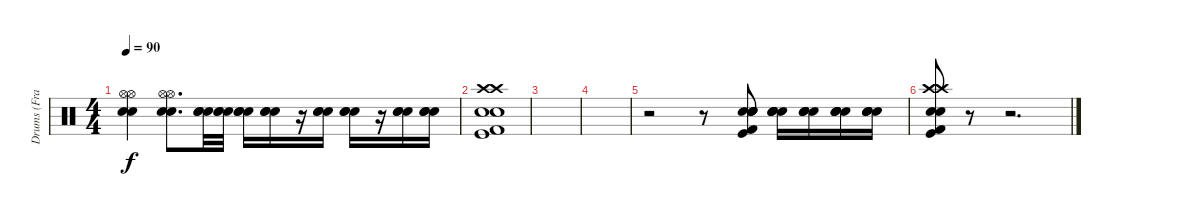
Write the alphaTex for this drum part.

\track ("Drums (Frank Ferrer)" "Drums (Fra") {instrument percussion}
\staff {score}
\articulation defaults
\ts (4 4)
\tempo 90
\clef neutral
\ks c
("Hi-Hat (open)" "Hi-Hat (open)" "Snare (hit) 2" "Snare (hit) 2").4{dy f} ("Hi-Hat (open)" "Hi-Hat (open)" "Snare (hit) 2" "Snare (hit) 2").8{d} ("Snare (hit) 2" "Snare (hit) 2" "Snare (hit) 2").32 ("Snare (hit) 2" "Snare (hit) 2" "Snare (hit) 2").32 ("Snare (hit) 2" "Snare (hit) 2" "Snare (hit) 2").16 ("Snare (hit) 2" "Snare (hit) 2" "Snare (hit) 2").16 r.16 ("Snare (hit) 2" "Snare (hit) 2" "Snare (hit) 2").16 ("Snare (hit) 2" "Snare (hit) 2" "Snare (hit) 2").16 r.16 ("Snare (hit) 2" "Snare (hit) 2" "Snare (hit) 2").16 ("Snare (hit) 2" "Snare (hit) 2" "Snare (hit) 2").16 |
("Crash high (hit)" "Crash high (hit)" "Snare (hit) 2" "Snare (hit) 2" "Kick (hit)" "Kick (hit) 2").1 |
|
|
r.2 r.8 ("Snare (hit) 2" "Snare (hit) 2" "Snare (hit) 2" "Snare (hit) 2" "Kick (hit)" "Kick (hit) 2").8 ("Snare (hit) 2" "Snare (hit) 2" "Snare (hit) 2" "Snare (hit) 2").16 ("Snare (hit) 2" "Snare (hit) 2" "Snare (hit) 2" "Snare (hit) 2").16 ("Snare (hit) 2" "Snare (hit) 2" "Snare (hit) 2" "Snare (hit) 2").16 ("Snare (hit) 2" "Snare (hit) 2" "Snare (hit) 2" "Snare (hit) 2").16 |
("Crash high (hit)" "Crash high (hit)" "Snare (hit) 2" "Snare (hit) 2" "Kick (hit)" "Kick (hit) 2").8 r.8 r.2{d}
